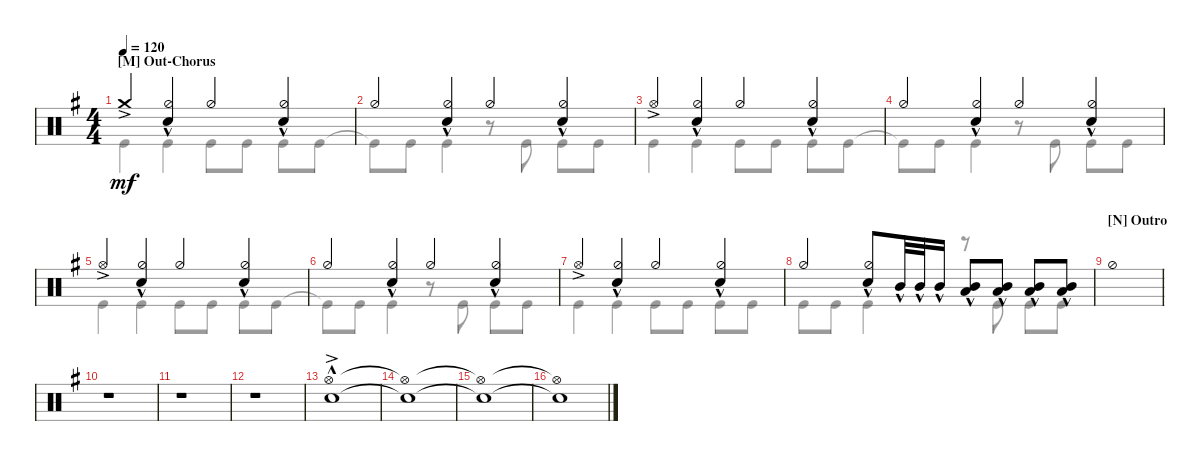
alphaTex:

\defaultSystemsLayout 4
\bracketExtendMode groupsimilarinstruments
\singleTrackTrackNamePolicy hidden
\multiTrackTrackNamePolicy hidden
\firstSystemTrackNameOrientation horizontal
\otherSystemsTrackNameOrientation horizontal
\track ("Maksim Udalov" "Drums") {instrument percussion}
\staff {score}
\articulation defaults
\voice
\ts (4 4)
\section ("M" "Out-Chorus")
\tempo 120
\clef neutral
\scale
1.02648
\ks g "Crash medium (hit)"{ac}.4{dy mf}
("Snare (hit) 2"{hac} "Hi-Hat (half)").4 "Hi-Hat (half)".4 ("Snare (hit) 2"{hac} "Hi-Hat (half)").4 |
\scale
0.973518 "Hi-Hat (half)".4 ("Hi-Hat (half)" "Snare (hit) 2"{hac}).4 "Hi-Hat (half)".4 ("Hi-Hat (half)" "Snare (hit) 2"{hac}).4 |
\scale
1.02648 "Hi-Hat (open)"{ac}.4 ("Snare (hit) 2"{hac} "Hi-Hat (half)").4 "Hi-Hat (half)".4 ("Snare (hit) 2"{hac} "Hi-Hat (half)").4 |
\scale
0.973518 "Hi-Hat (half)".4 ("Hi-Hat (half)" "Snare (hit) 2"{hac}).4 "Hi-Hat (half)".4 ("Hi-Hat (half)" "Snare (hit) 2"{hac}).4 |
\scale
1.02648 "Hi-Hat (open)"{ac}.4 ("Snare (hit) 2"{hac} "Hi-Hat (half)").4 "Hi-Hat (half)".4 ("Snare (hit) 2"{hac} "Hi-Hat (half)").4 |
\scale
0.973518 "Hi-Hat (half)".4 ("Hi-Hat (half)" "Snare (hit) 2"{hac}).4 "Hi-Hat (half)".4 ("Hi-Hat (half)" "Snare (hit) 2"{hac}).4 |
\scale
1.02648 "Hi-Hat (open)"{ac}.4 ("Snare (hit) 2"{hac} "Hi-Hat (half)").4 "Hi-Hat (half)".4 ("Snare (hit) 2"{hac} "Hi-Hat (half)").4 |
\scale
0.973518 "Hi-Hat (half)".4 ("Hi-Hat (half)" "Snare (hit) 2"{hac}).8 "Mid Tom (hit)"{hac}.32 "Mid Tom (hit)"{hac}.32 "Mid Tom (hit)"{hac}.16 ("Low Tom (hit)"{hac} "Mid Tom (hit)"{hac}).8 ("Low Tom (hit)"{hac} "Mid Tom (hit)"{hac}).8 ("Low Tom (hit)"{hac} "Mid Tom (hit)"{hac}).8 ("Low Tom (hit)"{hac} "Mid Tom (hit)"{hac}).8 |
\section ("N" "Outro")
\scale
1.02648 "Hi-Hat (half)".1 |
\scale
0.973518 r.1 |
\scale
1.02648 r.1 |
\scale
0.973518 r.1 |
\scale
1.02648 ("Snare (hit) 2"{hac} "Hi-Hat (open)"{ac}).1 |
\scale
0.973518 ("Snare (hit) 2"{t} "Hi-Hat (open)"{t}).1 |
\scale
1.02648 ("Snare (hit) 2"{t} "Hi-Hat (open)"{t}).1 |
\scale
0.973518 ("Snare (hit) 2"{t} "Hi-Hat (open)"{t}).1
\voice
\clef neutral
\ottava regular
\simile none
\scale
1.02648
\ks g "Kick (hit)".4{dy mf} "Kick (hit)".4 "Kick (hit)".8 "Kick (hit)".8 "Kick (hit)".8 "Kick (hit)".8
|
\scale
0.973518 "Kick (hit)"{t}.8 "Kick (hit)".8 "Kick (hit)".4 r.8 "Kick (hit)".8 "Kick (hit)".8 "Kick (hit)".8 |
\scale
1.02648 "Kick (hit)".4 "Kick (hit)".4 "Kick (hit)".8 "Kick (hit)".8 "Kick (hit)".8 "Kick (hit)".8 |
\scale
0.973518 "Kick (hit)"{t}.8 "Kick (hit)".8 "Kick (hit)".4 r.8 "Kick (hit)".8 "Kick (hit)".8 "Kick (hit)".8 |
\scale
1.02648 "Kick (hit)".4 "Kick (hit)".4 "Kick (hit)".8 "Kick (hit)".8 "Kick (hit)".8 "Kick (hit)".8 |
\scale
0.973518 "Kick (hit)"{t}.8 "Kick (hit)".8 "Kick (hit)".4 r.8 "Kick (hit)".8 "Kick (hit)".8 "Kick (hit)".8 |
\scale
1.02648 "Kick (hit)".4 "Kick (hit)".4 "Kick (hit)".8 "Kick (hit)".8 "Kick (hit)".8 "Kick (hit)".8 |
\scale
0.973518 "Kick (hit)".8 "Kick (hit)".8 "Kick (hit)".4 r.8 "Kick (hit)".8 "Kick (hit)".8 "Kick (hit)".8 |
\scale
1.02648 |
\scale
0.973518 |
\scale
1.02648 |
\scale
0.973518 |
\scale
1.02648 |
\scale
0.973518 |
\scale
1.02648 |
\scale
0.973518
